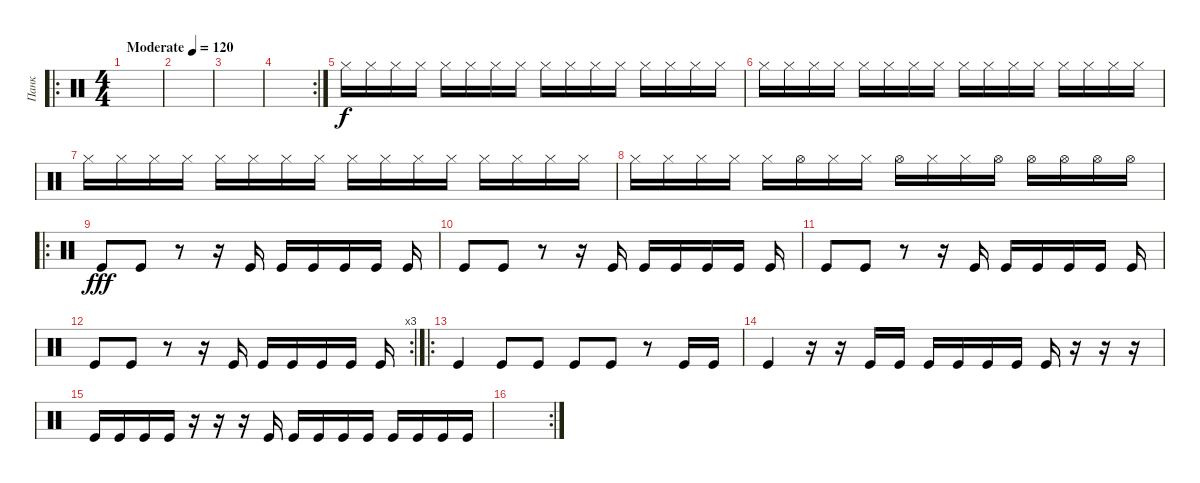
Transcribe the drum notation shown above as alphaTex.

\track ("Панк" "Панк") {instrument percussion}
\staff {score}
\articulation defaults
\ro
\ts (4 4)
\tempo (120 "Moderate")
\clef neutral
\ks c
|
|
|
\rc 2
|
"Hi-Hat (closed)".16 "Hi-Hat (closed)".16 "Hi-Hat (closed)".16 "Hi-Hat (closed)".16 "Hi-Hat (closed)".16 "Hi-Hat (closed)".16 "Hi-Hat (closed)".16 "Hi-Hat (closed)".16 "Hi-Hat (closed)".16 "Hi-Hat (closed)".16 "Hi-Hat (closed)".16 "Hi-Hat (closed)".16 "Hi-Hat (closed)".16 "Hi-Hat (closed)".16 "Hi-Hat (closed)".16 "Hi-Hat (closed)".16 |
"Hi-Hat (closed)".16 "Hi-Hat (closed)".16 "Hi-Hat (closed)".16 "Hi-Hat (closed)".16 "Hi-Hat (closed)".16 "Hi-Hat (closed)".16 "Hi-Hat (closed)".16 "Hi-Hat (closed)".16 "Hi-Hat (closed)".16 "Hi-Hat (closed)".16 "Hi-Hat (closed)".16 "Hi-Hat (closed)".16 "Hi-Hat (closed)".16 "Hi-Hat (closed)".16 "Hi-Hat (closed)".16 "Hi-Hat (closed)".16 |
"Hi-Hat (closed)".16 "Hi-Hat (closed)".16 "Hi-Hat (closed)".16 "Hi-Hat (closed)".16 "Hi-Hat (closed)".16 "Hi-Hat (closed)".16 "Hi-Hat (closed)".16 "Hi-Hat (closed)".16 "Hi-Hat (closed)".16 "Hi-Hat (closed)".16 "Hi-Hat (closed)".16 "Hi-Hat (closed)".16 "Hi-Hat (closed)".16 "Hi-Hat (closed)".16 "Hi-Hat (closed)".16 "Hi-Hat (closed)".16 |
"Hi-Hat (closed)".16 "Hi-Hat (closed)".16 "Hi-Hat (closed)".16 "Hi-Hat (closed)".16 "Hi-Hat (closed)".16 "Hi-Hat (open)".16 "Hi-Hat (closed)".16 "Hi-Hat (closed)".16 "Hi-Hat (open)".16 "Hi-Hat (closed)".16 "Hi-Hat (closed)".16 "Hi-Hat (open)".16 "Hi-Hat (open)".16 "Hi-Hat (open)".16 "Hi-Hat (open)".16 "Hi-Hat (open)".16 |
\ro "Kick (hit)".8{dy fff} "Kick (hit)".8
r.8 r.16 "Kick (hit)".16 "Kick (hit)".16 "Kick (hit)".16 "Kick (hit)".16 "Kick (hit)".16 "Kick (hit)".16 |
"Kick (hit)".8 "Kick (hit)".8 r.8 r.16 "Kick (hit)".16 "Kick (hit)".16 "Kick (hit)".16 "Kick (hit)".16 "Kick (hit)".16 "Kick (hit)".16 |
"Kick (hit)".8 "Kick (hit)".8 r.8 r.16 "Kick (hit)".16 "Kick (hit)".16 "Kick (hit)".16 "Kick (hit)".16 "Kick (hit)".16 "Kick (hit)".16 |
\rc 3 "Kick (hit)".8 "Kick (hit)".8
r.8 r.16 "Kick (hit)".16 "Kick (hit)".16 "Kick (hit)".16 "Kick (hit)".16 "Kick (hit)".16 "Kick (hit)".16 |
\ro "Kick (hit)".4 "Kick (hit)".8 "Kick (hit)".8 "Kick (hit)".8 "Kick (hit)".8
r.8 "Kick (hit)".16 "Kick (hit)".16 |
"Kick (hit)".4 r.16 r.16 "Kick (hit)".16 "Kick (hit)".16 "Kick (hit)".16 "Kick (hit)".16 "Kick (hit)".16 "Kick (hit)".16 "Kick (hit)".16 r.16 r.16 r.16 |
"Kick (hit)".16 "Kick (hit)".16 "Kick (hit)".16 "Kick (hit)".16 r.16 r.16 r.16 "Kick (hit)".16 "Kick (hit)".16 "Kick (hit)".16 "Kick (hit)".16 "Kick (hit)".16 "Kick (hit)".16 "Kick (hit)".16 "Kick (hit)".16 "Kick (hit)".16 |
\rc 2
